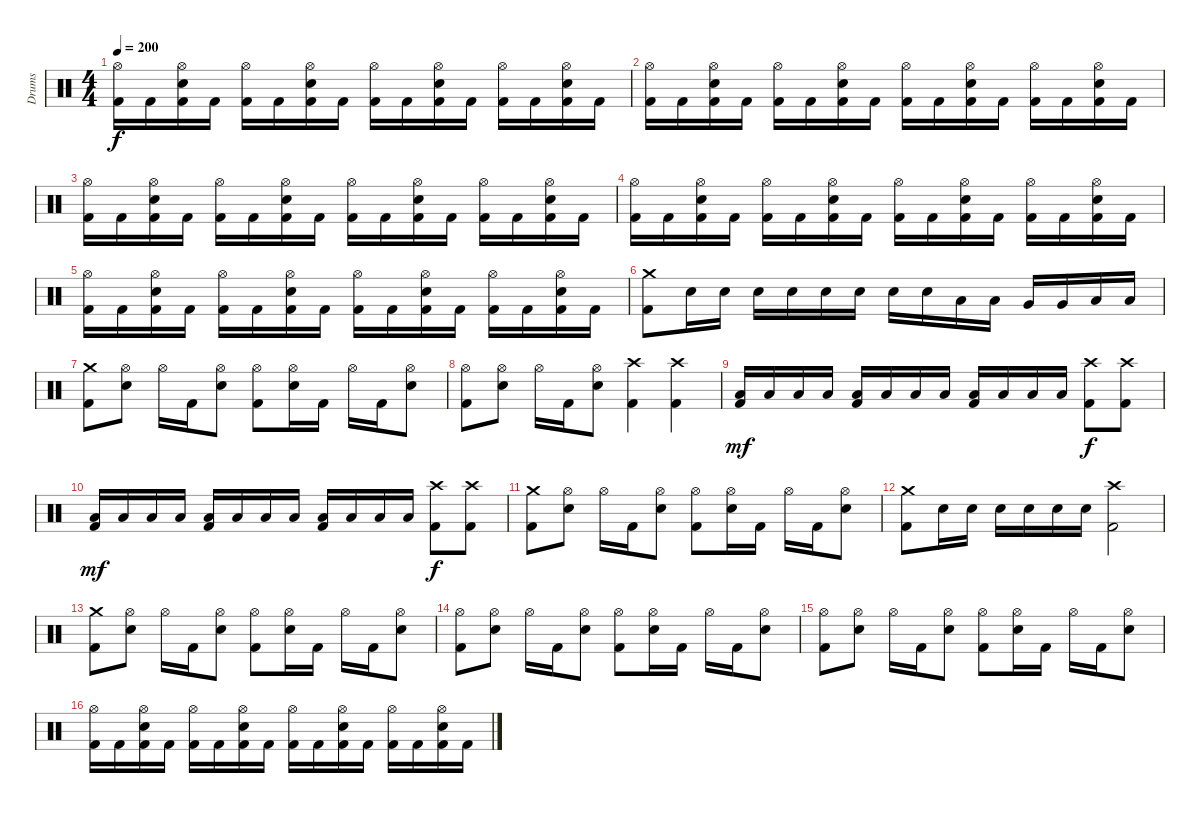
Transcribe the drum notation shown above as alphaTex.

\track ("Drums" "Drums") {instrument percussion}
\staff {score}
\articulation defaults
\ts (4 4)
\tempo 200
\clef neutral
\ks c
("Hi-Hat (open)" "Kick (hit) 2").16{dy f} "Kick (hit) 2".16 ("Hi-Hat (open)" "Snare (hit) 2" "Kick (hit) 2").16 "Kick (hit) 2".16 ("Hi-Hat (open)" "Kick (hit) 2").16 "Kick (hit) 2".16 ("Hi-Hat (open)" "Snare (hit) 2" "Kick (hit) 2").16 "Kick (hit) 2".16 ("Hi-Hat (open)" "Kick (hit) 2").16 "Kick (hit) 2".16 ("Hi-Hat (open)" "Snare (hit) 2" "Kick (hit) 2").16 "Kick (hit) 2".16 ("Hi-Hat (open)" "Kick (hit) 2").16 "Kick (hit) 2".16 ("Hi-Hat (open)" "Snare (hit) 2" "Kick (hit) 2").16 "Kick (hit) 2".16 |
("Hi-Hat (open)" "Kick (hit) 2").16 "Kick (hit) 2".16 ("Hi-Hat (open)" "Snare (hit) 2" "Kick (hit) 2").16 "Kick (hit) 2".16 ("Hi-Hat (open)" "Kick (hit) 2").16 "Kick (hit) 2".16 ("Hi-Hat (open)" "Snare (hit) 2" "Kick (hit) 2").16 "Kick (hit) 2".16 ("Hi-Hat (open)" "Kick (hit) 2").16 "Kick (hit) 2".16 ("Hi-Hat (open)" "Snare (hit) 2" "Kick (hit) 2").16 "Kick (hit) 2".16 ("Hi-Hat (open)" "Kick (hit) 2").16 "Kick (hit) 2".16 ("Hi-Hat (open)" "Snare (hit) 2" "Kick (hit) 2").16 "Kick (hit) 2".16 |
("Hi-Hat (open)" "Kick (hit) 2").16 "Kick (hit) 2".16 ("Hi-Hat (open)" "Snare (hit) 2" "Kick (hit) 2").16 "Kick (hit) 2".16 ("Hi-Hat (open)" "Kick (hit) 2").16 "Kick (hit) 2".16 ("Hi-Hat (open)" "Snare (hit) 2" "Kick (hit) 2").16 "Kick (hit) 2".16 ("Hi-Hat (open)" "Kick (hit) 2").16 "Kick (hit) 2".16 ("Hi-Hat (open)" "Snare (hit) 2" "Kick (hit) 2").16 "Kick (hit) 2".16 ("Hi-Hat (open)" "Kick (hit) 2").16 "Kick (hit) 2".16 ("Hi-Hat (open)" "Snare (hit) 2" "Kick (hit) 2").16 "Kick (hit) 2".16 |
("Hi-Hat (open)" "Kick (hit) 2").16 "Kick (hit) 2".16 ("Hi-Hat (open)" "Snare (hit) 2" "Kick (hit) 2").16 "Kick (hit) 2".16 ("Hi-Hat (open)" "Kick (hit) 2").16 "Kick (hit) 2".16 ("Hi-Hat (open)" "Snare (hit) 2" "Kick (hit) 2").16 "Kick (hit) 2".16 ("Hi-Hat (open)" "Kick (hit) 2").16 "Kick (hit) 2".16 ("Hi-Hat (open)" "Snare (hit) 2" "Kick (hit) 2").16 "Kick (hit) 2".16 ("Hi-Hat (open)" "Kick (hit) 2").16 "Kick (hit) 2".16 ("Hi-Hat (open)" "Snare (hit) 2" "Kick (hit) 2").16 "Kick (hit) 2".16 |
("Hi-Hat (open)" "Kick (hit) 2").16 "Kick (hit) 2".16 ("Hi-Hat (open)" "Snare (hit) 2" "Kick (hit) 2").16 "Kick (hit) 2".16 ("Hi-Hat (open)" "Kick (hit) 2").16 "Kick (hit) 2".16 ("Hi-Hat (open)" "Snare (hit) 2" "Kick (hit) 2").16 "Kick (hit) 2".16 ("Hi-Hat (open)" "Kick (hit) 2").16 "Kick (hit) 2".16 ("Hi-Hat (open)" "Snare (hit) 2" "Kick (hit) 2").16 "Kick (hit) 2".16 ("Hi-Hat (open)" "Kick (hit) 2").16 "Kick (hit) 2".16 ("Hi-Hat (open)" "Snare (hit) 2" "Kick (hit) 2").16 "Kick (hit) 2".16 |
("Crash medium (hit)" "Kick (hit) 2").8 "Snare (hit) 2".16 "Snare (hit) 2".16 "Snare (hit) 2".16 "Snare (hit) 2".16 "Snare (hit) 2".16 "Snare (hit) 2".16 "Snare (hit) 2".16 "Snare (hit) 2".16 "Low Tom (hit)".16 "Low Tom (hit)".16 "Very Low Tom (hit)".16 "Very Low Tom (hit)".16 "Low Floor Tom (hit)".16 "Low Floor Tom (hit)".16 |
("Crash medium (hit)" "Kick (hit) 2").8 ("Hi-Hat (open)" "Snare (hit) 2").8 "Hi-Hat (open)".16 "Kick (hit) 2".16 ("Hi-Hat (open)" "Snare (hit) 2").8 ("Hi-Hat (open)" "Kick (hit) 2").8 ("Hi-Hat (open)" "Snare (hit) 2").16 "Kick (hit) 2".16 "Hi-Hat (open)".16 "Kick (hit) 2".16 ("Hi-Hat (open)" "Snare (hit) 2").8 |
("Hi-Hat (open)" "Kick (hit) 2").8 ("Hi-Hat (open)" "Snare (hit) 2").8 "Hi-Hat (open)".16 "Kick (hit) 2".16 ("Hi-Hat (open)" "Snare (hit) 2").8 ("Crash high (hit)" "Kick (hit) 2").4 ("Crash high (hit)" "Kick (hit) 2").4 |
("Low Floor Tom (hit)" "Kick (hit) 2").16{dy mf} "Low Floor Tom (hit)".16 "Low Floor Tom (hit)".16 "Low Floor Tom (hit)".16 ("Low Floor Tom (hit)" "Kick (hit) 2").16 "Low Floor Tom (hit)".16 "Low Floor Tom (hit)".16 "Low Floor Tom (hit)".16 ("Low Floor Tom (hit)" "Kick (hit) 2").16 "Low Floor Tom (hit)".16 "Low Floor Tom (hit)".16 "Low Floor Tom (hit)".16 ("Crash high (hit)" "Kick (hit) 2").8{dy f} ("Crash high (hit)" "Kick (hit) 2").8 |
("Low Floor Tom (hit)" "Kick (hit) 2").16{dy mf} "Low Floor Tom (hit)".16 "Low Floor Tom (hit)".16 "Low Floor Tom (hit)".16 ("Low Floor Tom (hit)" "Kick (hit) 2").16 "Low Floor Tom (hit)".16 "Low Floor Tom (hit)".16 "Low Floor Tom (hit)".16 ("Low Floor Tom (hit)" "Kick (hit) 2").16 "Low Floor Tom (hit)".16 "Low Floor Tom (hit)".16 "Low Floor Tom (hit)".16 ("Crash high (hit)" "Kick (hit) 2").8{dy f} ("Crash high (hit)" "Kick (hit) 2").8 |
("Crash medium (hit)" "Kick (hit) 2").8 ("Hi-Hat (open)" "Snare (hit) 2").8 "Hi-Hat (open)".16 "Kick (hit) 2".16 ("Hi-Hat (open)" "Snare (hit) 2").8 ("Hi-Hat (open)" "Kick (hit) 2").8 ("Hi-Hat (open)" "Snare (hit) 2").16 "Kick (hit) 2".16 "Hi-Hat (open)".16 "Kick (hit) 2".16 ("Hi-Hat (open)" "Snare (hit) 2").8 |
("Crash medium (hit)" "Kick (hit) 2").8 "Snare (hit) 2".16 "Snare (hit) 2".16 "Snare (hit) 2".16 "Snare (hit) 2".16 "Snare (hit) 2".16 "Snare (hit) 2".16 ("Crash high (hit)" "Kick (hit) 2").2 |
("Crash medium (hit)" "Kick (hit) 2").8 ("Hi-Hat (open)" "Snare (hit) 2").8 "Hi-Hat (open)".16 "Kick (hit) 2".16 ("Hi-Hat (open)" "Snare (hit) 2").8 ("Hi-Hat (open)" "Kick (hit) 2").8 ("Hi-Hat (open)" "Snare (hit) 2").16 "Kick (hit) 2".16 "Hi-Hat (open)".16 "Kick (hit) 2".16 ("Hi-Hat (open)" "Snare (hit) 2").8 |
("Hi-Hat (open)" "Kick (hit) 2").8 ("Hi-Hat (open)" "Snare (hit) 2").8 "Hi-Hat (open)".16 "Kick (hit) 2".16 ("Hi-Hat (open)" "Snare (hit) 2").8 ("Hi-Hat (open)" "Kick (hit) 2").8 ("Hi-Hat (open)" "Snare (hit) 2").16 "Kick (hit) 2".16 "Hi-Hat (open)".16 "Kick (hit) 2".16 ("Hi-Hat (open)" "Snare (hit) 2").8 |
("Hi-Hat (open)" "Kick (hit) 2").8 ("Hi-Hat (open)" "Snare (hit) 2").8 "Hi-Hat (open)".16 "Kick (hit) 2".16 ("Hi-Hat (open)" "Snare (hit) 2").8 ("Hi-Hat (open)" "Kick (hit) 2").8 ("Hi-Hat (open)" "Snare (hit) 2").16 "Kick (hit) 2".16 "Hi-Hat (open)".16 "Kick (hit) 2".16 ("Hi-Hat (open)" "Snare (hit) 2").8 |
("Hi-Hat (open)" "Kick (hit) 2").16 "Kick (hit) 2".16 ("Hi-Hat (open)" "Snare (hit) 2" "Kick (hit) 2").16 "Kick (hit) 2".16 ("Hi-Hat (open)" "Kick (hit) 2").16 "Kick (hit) 2".16 ("Hi-Hat (open)" "Snare (hit) 2" "Kick (hit) 2").16 "Kick (hit) 2".16 ("Hi-Hat (open)" "Kick (hit) 2").16 "Kick (hit) 2".16 ("Hi-Hat (open)" "Snare (hit) 2" "Kick (hit) 2").16 "Kick (hit) 2".16 ("Hi-Hat (open)" "Kick (hit) 2").16 "Kick (hit) 2".16 ("Hi-Hat (open)" "Snare (hit) 2" "Kick (hit) 2").16 "Kick (hit) 2".16
